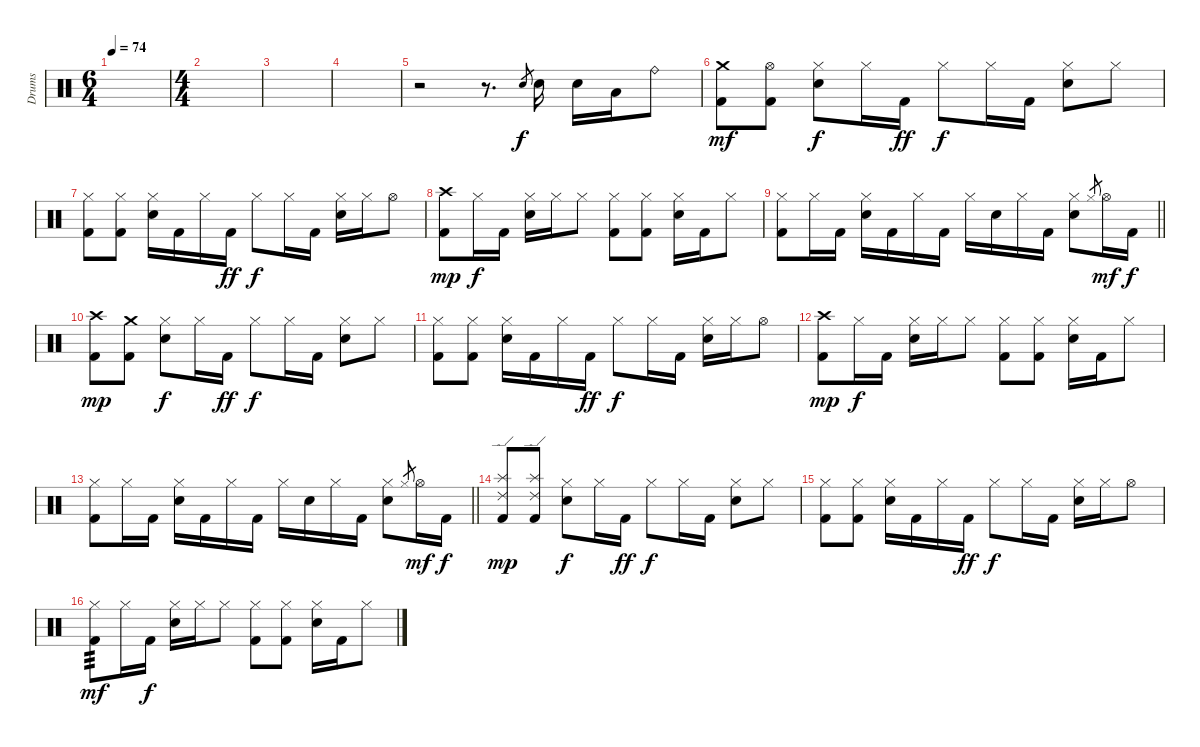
\track ("Drums" "Drums") {instrument percussion}
\staff {score}
\articulation defaults
\ts (6 4)
\tempo 74
\clef neutral
\ks c
|
\ts (4 4)
|
|
|
r.2 r.8{d} "Snare (hit) 2".8{gr} "Snare (hit) 2".16{dy f} "Snare (hit) 2".16 "Low Tom (hit)".16 "Ride (bell)".8 |
("Crash medium (hit)" "Kick (hit) 2").8{dy mf} ("Hi-Hat (open)" "Kick (hit) 2").8 ("Hi-Hat (closed)" "Snare (hit) 2").8{dy f} "Hi-Hat (closed)".16 "Kick (hit) 2".16{dy ff} "Hi-Hat (closed)".8{dy f} "Hi-Hat (closed)".16 "Kick (hit) 2".16 ("Hi-Hat (closed)" "Snare (hit) 2").8 "Hi-Hat (closed)".8 |
("Hi-Hat (closed)" "Kick (hit) 2").8 ("Hi-Hat (closed)" "Kick (hit) 2").8 ("Hi-Hat (closed)" "Snare (hit) 2").16 "Kick (hit) 2".16 "Hi-Hat (closed)".16 "Kick (hit) 2".16{dy ff} "Hi-Hat (closed)".8{dy f} "Hi-Hat (closed)".16 "Kick (hit) 2".16 ("Hi-Hat (closed)" "Snare (hit) 2").16 "Hi-Hat (closed)".16 "Hi-Hat (open)".8 |
("Crash high (hit)" "Kick (hit) 2").8{dy mp} "Hi-Hat (closed)".16{dy f} "Kick (hit) 2".16 ("Hi-Hat (closed)" "Snare (hit) 2").16 "Hi-Hat (closed)".16 "Hi-Hat (closed)".8 ("Hi-Hat (closed)" "Kick (hit) 2").8 ("Hi-Hat (closed)" "Kick (hit) 2").8 ("Hi-Hat (closed)" "Snare (hit) 2").16 "Kick (hit) 2".16 "Hi-Hat (closed)".8 |
\barLineRight lightlight
("Hi-Hat (closed)" "Kick (hit) 2").8 "Hi-Hat (closed)".16 "Kick (hit) 2".16 ("Hi-Hat (closed)" "Snare (hit) 2").16 "Kick (hit) 2".16 "Hi-Hat (closed)".16 "Kick (hit) 2".16 "Hi-Hat (closed)".16 "Snare (hit) 2".16 "Hi-Hat (closed)".16 "Kick (hit) 2".16 ("Hi-Hat (closed)" "Snare (hit) 2").8 "Hi-Hat (closed)".8{gr} "Hi-Hat (open)".16{dy mf} "Kick (hit) 2".16{dy f} |
("Crash high (hit)" "Kick (hit) 2").8{dy mp} ("Crash medium (hit)" "Kick (hit) 2").8 ("Hi-Hat (closed)" "Snare (hit) 2").8{dy f} "Hi-Hat (closed)".16 "Kick (hit) 2".16{dy ff} "Hi-Hat (closed)".8{dy f} "Hi-Hat (closed)".16 "Kick (hit) 2".16 ("Hi-Hat (closed)" "Snare (hit) 2").8 "Hi-Hat (closed)".8 |
("Hi-Hat (closed)" "Kick (hit) 2").8 ("Hi-Hat (closed)" "Kick (hit) 2").8 ("Hi-Hat (closed)" "Snare (hit) 2").16 "Kick (hit) 2".16 "Hi-Hat (closed)".16 "Kick (hit) 2".16{dy ff} "Hi-Hat (closed)".8{dy f} "Hi-Hat (closed)".16 "Kick (hit) 2".16 ("Hi-Hat (closed)" "Snare (hit) 2").16 "Hi-Hat (closed)".16 "Hi-Hat (open)".8 |
("Crash high (hit)" "Kick (hit) 2").8{dy mp} "Hi-Hat (closed)".16{dy f} "Kick (hit) 2".16 ("Hi-Hat (closed)" "Snare (hit) 2").16 "Hi-Hat (closed)".16 "Hi-Hat (closed)".8 ("Hi-Hat (closed)" "Kick (hit) 2").8 ("Hi-Hat (closed)" "Kick (hit) 2").8 ("Hi-Hat (closed)" "Snare (hit) 2").16 "Kick (hit) 2".16 "Hi-Hat (closed)".8 |
\barLineRight lightlight
("Hi-Hat (closed)" "Kick (hit) 2").8 "Hi-Hat (closed)".16 "Kick (hit) 2".16 ("Hi-Hat (closed)" "Snare (hit) 2").16 "Kick (hit) 2".16 "Hi-Hat (closed)".16 "Kick (hit) 2".16 "Hi-Hat (closed)".16 "Snare (hit) 2".16 "Hi-Hat (closed)".16 "Kick (hit) 2".16 ("Hi-Hat (closed)" "Snare (hit) 2").8 "Hi-Hat (closed)".8{gr} "Hi-Hat (open)".16{dy mf} "Kick (hit) 2".16{dy f} |
("Splash (hit)" "Ride (edge) 2" "Kick (hit) 2").8{dy mp} ("Splash (hit)" "Ride (edge) 2" "Kick (hit) 2").8 ("Hi-Hat (closed)" "Snare (hit) 2").8{dy f} "Hi-Hat (closed)".16 "Kick (hit) 2".16{dy ff} "Hi-Hat (closed)".8{dy f} "Hi-Hat (closed)".16 "Kick (hit) 2".16 ("Hi-Hat (closed)" "Snare (hit) 2").8 "Hi-Hat (closed)".8 |
("Hi-Hat (closed)" "Kick (hit) 2").8 ("Hi-Hat (closed)" "Kick (hit) 2").8 ("Hi-Hat (closed)" "Snare (hit) 2").16 "Kick (hit) 2".16 "Hi-Hat (closed)".16 "Kick (hit) 2".16{dy ff} "Hi-Hat (closed)".8{dy f} "Hi-Hat (closed)".16 "Kick (hit) 2".16 ("Hi-Hat (closed)" "Snare (hit) 2").16 "Hi-Hat (closed)".16 "Hi-Hat (open)".8 |
("Hi-Hat (closed)" "Kick (hit) 2").8{tp 3 dy mf} "Hi-Hat (closed)".16 "Kick (hit) 2".16{dy f} ("Hi-Hat (closed)" "Snare (hit) 2").16 "Hi-Hat (closed)".16 "Hi-Hat (closed)".8 ("Hi-Hat (closed)" "Kick (hit) 2").8 ("Hi-Hat (closed)" "Kick (hit) 2").8 ("Hi-Hat (closed)" "Snare (hit) 2").16 "Kick (hit) 2".16 "Hi-Hat (closed)".8
